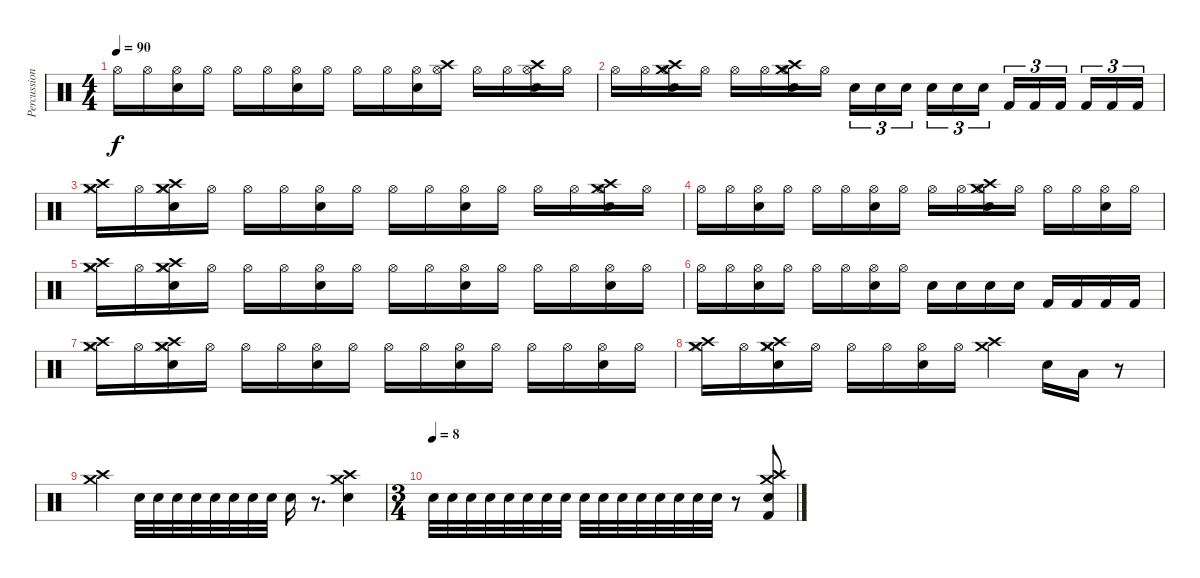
\track ("Percussions" "Percussion") {instrument percussion}
\staff {score}
\articulation defaults
\ts (4 4)
\tempo 90
\clef neutral
\ks c "Hi-Hat (open)".16{dy f} "Hi-Hat (open)".16
("Snare (hit) 2" "Hi-Hat (open)").16 "Hi-Hat (open)".16 "Hi-Hat (open)".16 "Hi-Hat (open)".16 ("Snare (hit) 2" "Hi-Hat (open)").16 "Hi-Hat (open)".16 "Hi-Hat (open)".16 "Hi-Hat (open)".16 ("Snare (hit) 2" "Hi-Hat (open)").16 ("Crash high (hit)" "Hi-Hat (open)").16 "Hi-Hat (open)".16 "Hi-Hat (open)".16 ("Snare (hit) 2" "Hi-Hat (open)" "Crash high (hit)").16 "Hi-Hat (open)".16 |
"Hi-Hat (open)".16 "Hi-Hat (open)".16 ("Snare (hit) 2" "Hi-Hat (open)" "Crash high (hit)" "Crash medium (hit)").16 "Hi-Hat (open)".16 "Hi-Hat (open)".16 "Hi-Hat (open)".16 ("Snare (hit) 2" "Hi-Hat (open)" "Crash high (hit)" "Crash medium (hit)").16 "Hi-Hat (open)".16 "Snare (hit) 2".16{tu (3 2)} "Snare (hit) 2".16{tu (3 2)} "Snare (hit) 2".16{tu (3 2)} "Snare (hit) 2".16{tu (3 2)} "Snare (hit) 2".16{tu (3 2)} "Snare (hit) 2".16{tu (3 2)} "Kick (hit) 2".16{tu (3 2)} "Kick (hit) 2".16{tu (3 2)} "Kick (hit) 2".16{tu (3 2)} "Kick (hit) 2".16{tu (3 2)} "Kick (hit) 2".16{tu (3 2)} "Kick (hit) 2".16{tu (3 2)} |
("Crash high (hit)" "Hi-Hat (closed)" "Crash medium (hit)").16 "Hi-Hat (open)".16 ("Snare (hit) 2" "Hi-Hat (closed)" "Crash high (hit)" "Crash medium (hit)").16 "Hi-Hat (open)".16 "Hi-Hat (open)".16 "Hi-Hat (open)".16 ("Snare (hit) 2" "Hi-Hat (open)").16 "Hi-Hat (open)".16 "Hi-Hat (open)".16 "Hi-Hat (open)".16 ("Snare (hit) 2" "Hi-Hat (open)").16 "Hi-Hat (open)".16 "Hi-Hat (open)".16 "Hi-Hat (open)".16 ("Snare (hit) 2" "Hi-Hat (open)" "Crash medium (hit)" "Crash high (hit)").16 "Hi-Hat (open)".16 |
"Hi-Hat (open)".16 "Hi-Hat (open)".16 ("Snare (hit) 2" "Hi-Hat (open)").16 "Hi-Hat (open)".16 "Hi-Hat (open)".16 "Hi-Hat (open)".16 ("Snare (hit) 2" "Hi-Hat (open)").16 "Hi-Hat (open)".16 "Hi-Hat (open)".16 "Hi-Hat (open)".16 ("Snare (hit) 2" "Hi-Hat (open)" "Crash medium (hit)" "Crash high (hit)").16 "Hi-Hat (open)".16 "Hi-Hat (open)".16 "Hi-Hat (open)".16 ("Snare (hit) 2" "Hi-Hat (open)").16 "Hi-Hat (open)".16 |
("Crash high (hit)" "Hi-Hat (closed)" "Crash medium (hit)").16 "Hi-Hat (open)".16 ("Snare (hit) 2" "Hi-Hat (closed)" "Crash high (hit)" "Crash medium (hit)").16 "Hi-Hat (open)".16 "Hi-Hat (open)".16 "Hi-Hat (open)".16 ("Snare (hit) 2" "Hi-Hat (open)").16 "Hi-Hat (open)".16 "Hi-Hat (open)".16 "Hi-Hat (open)".16 ("Snare (hit) 2" "Hi-Hat (open)").16 "Hi-Hat (open)".16 "Hi-Hat (open)".16 "Hi-Hat (open)".16 ("Snare (hit) 2" "Hi-Hat (open)").16 "Hi-Hat (open)".16 |
"Hi-Hat (open)".16 "Hi-Hat (open)".16 ("Snare (hit) 2" "Hi-Hat (open)").16 "Hi-Hat (open)".16 "Hi-Hat (open)".16 "Hi-Hat (open)".16 ("Snare (hit) 2" "Hi-Hat (open)").16 "Hi-Hat (open)".16 "Snare (hit) 2".16 "Snare (hit) 2".16 "Snare (hit) 2".16 "Snare (hit) 2".16 "Kick (hit) 2".16 "Kick (hit) 2".16 "Kick (hit) 2".16 "Kick (hit) 2".16 |
("Crash high (hit)" "Hi-Hat (closed)" "Crash medium (hit)").16 "Hi-Hat (open)".16 ("Snare (hit) 2" "Hi-Hat (closed)" "Crash high (hit)" "Crash medium (hit)").16 "Hi-Hat (open)".16 "Hi-Hat (open)".16 "Hi-Hat (open)".16 ("Snare (hit) 2" "Hi-Hat (open)").16 "Hi-Hat (open)".16 "Hi-Hat (open)".16 "Hi-Hat (open)".16 ("Snare (hit) 2" "Hi-Hat (open)").16 "Hi-Hat (open)".16 "Hi-Hat (open)".16 "Hi-Hat (open)".16 ("Snare (hit) 2" "Hi-Hat (open)").16 "Hi-Hat (open)".16 |
("Crash high (hit)" "Hi-Hat (closed)" "Crash medium (hit)").16 "Hi-Hat (open)".16 ("Snare (hit) 2" "Hi-Hat (closed)" "Crash high (hit)" "Crash medium (hit)").16 "Hi-Hat (open)".16 "Hi-Hat (open)".16 "Hi-Hat (open)".16 ("Snare (hit) 2" "Hi-Hat (open)").16 "Hi-Hat (open)".16 ("Crash high (hit)" "Crash medium (hit)").4 "Snare (hit) 2".16 "Low Tom (hit)".16 r.8 |
("Crash high (hit)" "Crash medium (hit)").4 "Snare (hit) 2".32 "Snare (hit) 2".32 "Snare (hit) 2".32 "Snare (hit) 2".32 "Snare (hit) 2".32 "Snare (hit) 2".32 "Snare (hit) 2".32 "Snare (hit) 2".32 "Snare (hit) 2".16 r.8{d} ("Snare (hit) 2" "Crash high (hit)" "Crash medium (hit)").4 |
\ts (3 4)
\tempo (8)
"Snare (hit) 2".32 "Snare (hit) 2".32 "Snare (hit) 2".32 "Snare (hit) 2".32 "Snare (hit) 2".32 "Snare (hit) 2".32 "Snare (hit) 2".32 "Snare (hit) 2".32 "Snare (hit) 2".32 "Snare (hit) 2".32 "Snare (hit) 2".32 "Snare (hit) 2".32 "Snare (hit) 2".32 "Snare (hit) 2".32 "Snare (hit) 2".32 "Snare (hit) 2".32 r.8 ("Crash high (hit)" "Crash medium (hit)" "Kick (hit) 2" "Snare (hit) 2").8
